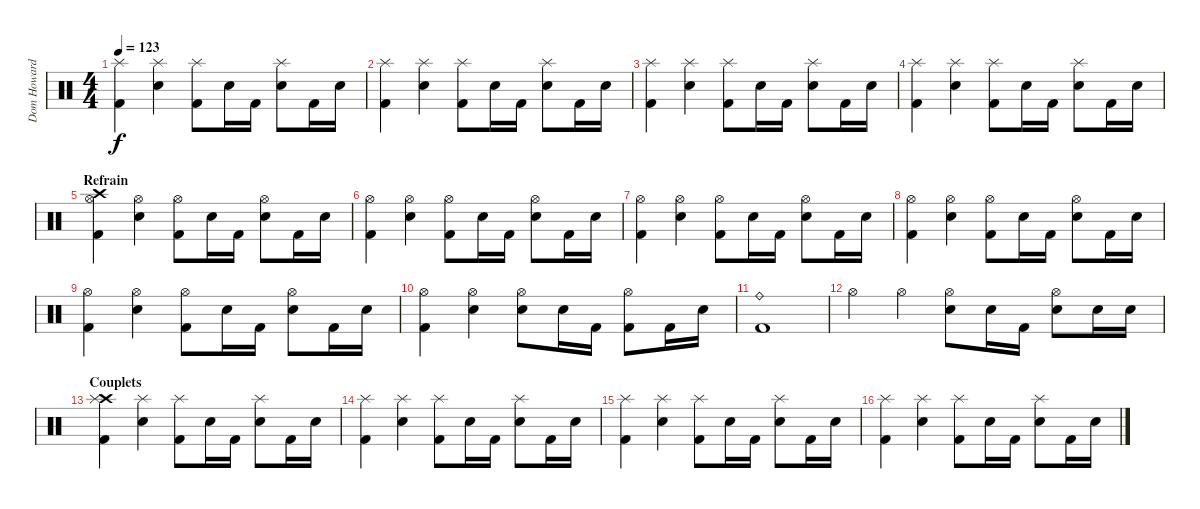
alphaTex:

\track ("Dom Howard" "Dom Howard") {instrument percussion}
\staff {score}
\articulation defaults
\ts (4 4)
\tempo 123
\clef neutral
\ks c
("Splash (hit)" "Kick (hit) 2").4{dy f} ("Splash (hit)" "Snare (hit) 2").4 ("Splash (hit)" "Kick (hit) 2").8 "Snare (hit) 2".16 "Kick (hit) 2".16 ("Splash (hit)" "Snare (hit) 2").8 "Kick (hit) 2".16 "Snare (hit) 2".16 |
("Splash (hit)" "Kick (hit) 2").4 ("Splash (hit)" "Snare (hit) 2").4 ("Splash (hit)" "Kick (hit) 2").8 "Snare (hit) 2".16 "Kick (hit) 2".16 ("Splash (hit)" "Snare (hit) 2").8 "Kick (hit) 2".16 "Snare (hit) 2".16 |
("Splash (hit)" "Kick (hit) 2").4 ("Splash (hit)" "Snare (hit) 2").4 ("Splash (hit)" "Kick (hit) 2").8 "Snare (hit) 2".16 "Kick (hit) 2".16 ("Splash (hit)" "Snare (hit) 2").8 "Kick (hit) 2".16 "Snare (hit) 2".16 |
("Splash (hit)" "Kick (hit) 2").4 ("Splash (hit)" "Snare (hit) 2").4 ("Splash (hit)" "Kick (hit) 2").8 "Snare (hit) 2".16 "Kick (hit) 2".16 ("Splash (hit)" "Snare (hit) 2").8 "Kick (hit) 2".16 "Snare (hit) 2".16 |
\section ("" "Refrain")
("Crash high (hit)" "Hi-Hat (open)" "Kick (hit) 2").4 ("Hi-Hat (open)" "Snare (hit) 2").4 ("Hi-Hat (open)" "Kick (hit) 2").8 "Snare (hit) 2".16 "Kick (hit) 2".16 ("Hi-Hat (open)" "Snare (hit) 2").8 "Kick (hit) 2".16 "Snare (hit) 2".16 |
("Hi-Hat (open)" "Kick (hit) 2").4 ("Hi-Hat (open)" "Snare (hit) 2").4 ("Hi-Hat (open)" "Kick (hit) 2").8 "Snare (hit) 2".16 "Kick (hit) 2".16 ("Hi-Hat (open)" "Snare (hit) 2").8 "Kick (hit) 2".16 "Snare (hit) 2".16 |
("Hi-Hat (open)" "Kick (hit) 2").4 ("Hi-Hat (open)" "Snare (hit) 2").4 ("Hi-Hat (open)" "Kick (hit) 2").8 "Snare (hit) 2".16 "Kick (hit) 2".16 ("Hi-Hat (open)" "Snare (hit) 2").8 "Kick (hit) 2".16 "Snare (hit) 2".16 |
("Hi-Hat (open)" "Kick (hit) 2").4 ("Hi-Hat (open)" "Snare (hit) 2").4 ("Hi-Hat (open)" "Kick (hit) 2").8 "Snare (hit) 2".16 "Kick (hit) 2".16 ("Hi-Hat (open)" "Snare (hit) 2").8 "Kick (hit) 2".16 "Snare (hit) 2".16 |
("Hi-Hat (open)" "Kick (hit) 2").4 ("Hi-Hat (open)" "Snare (hit) 2").4 ("Hi-Hat (open)" "Kick (hit) 2").8 "Snare (hit) 2".16 "Kick (hit) 2".16 ("Hi-Hat (open)" "Snare (hit) 2").8 "Kick (hit) 2".16 "Snare (hit) 2".16 |
("Hi-Hat (open)" "Kick (hit) 2").4 ("Hi-Hat (open)" "Snare (hit) 2").4 ("Hi-Hat (open)" "Snare (hit) 2").8 "Snare (hit) 2".16 "Kick (hit) 2".16 ("Hi-Hat (open)" "Kick (hit) 2").8 "Kick (hit) 2".16 "Snare (hit) 2".16 |
("Ride (bell)" "Kick (hit) 2").1 |
"Hi-Hat (open)".4 "Hi-Hat (open)".4 ("Hi-Hat (open)" "Snare (hit) 2").8 "Snare (hit) 2".16 "Kick (hit) 2".16 ("Hi-Hat (open)" "Snare (hit) 2").8 "Snare (hit) 2".16 "Snare (hit) 2".16 |
\section ("" "Couplets")
("Crash high (hit)" "Splash (hit)" "Kick (hit) 2").4 ("Splash (hit)" "Snare (hit) 2").4 ("Splash (hit)" "Kick (hit) 2").8 "Snare (hit) 2".16 "Kick (hit) 2".16 ("Splash (hit)" "Snare (hit) 2").8 "Kick (hit) 2".16 "Snare (hit) 2".16 |
("Splash (hit)" "Kick (hit) 2").4 ("Splash (hit)" "Snare (hit) 2").4 ("Splash (hit)" "Kick (hit) 2").8 "Snare (hit) 2".16 "Kick (hit) 2".16 ("Splash (hit)" "Snare (hit) 2").8 "Kick (hit) 2".16 "Snare (hit) 2".16 |
("Splash (hit)" "Kick (hit) 2").4 ("Splash (hit)" "Snare (hit) 2").4 ("Splash (hit)" "Kick (hit) 2").8 "Snare (hit) 2".16 "Kick (hit) 2".16 ("Splash (hit)" "Snare (hit) 2").8 "Kick (hit) 2".16 "Snare (hit) 2".16 |
("Splash (hit)" "Kick (hit) 2").4 ("Splash (hit)" "Snare (hit) 2").4 ("Splash (hit)" "Kick (hit) 2").8 "Snare (hit) 2".16 "Kick (hit) 2".16 ("Splash (hit)" "Snare (hit) 2").8 "Kick (hit) 2".16 "Snare (hit) 2".16
